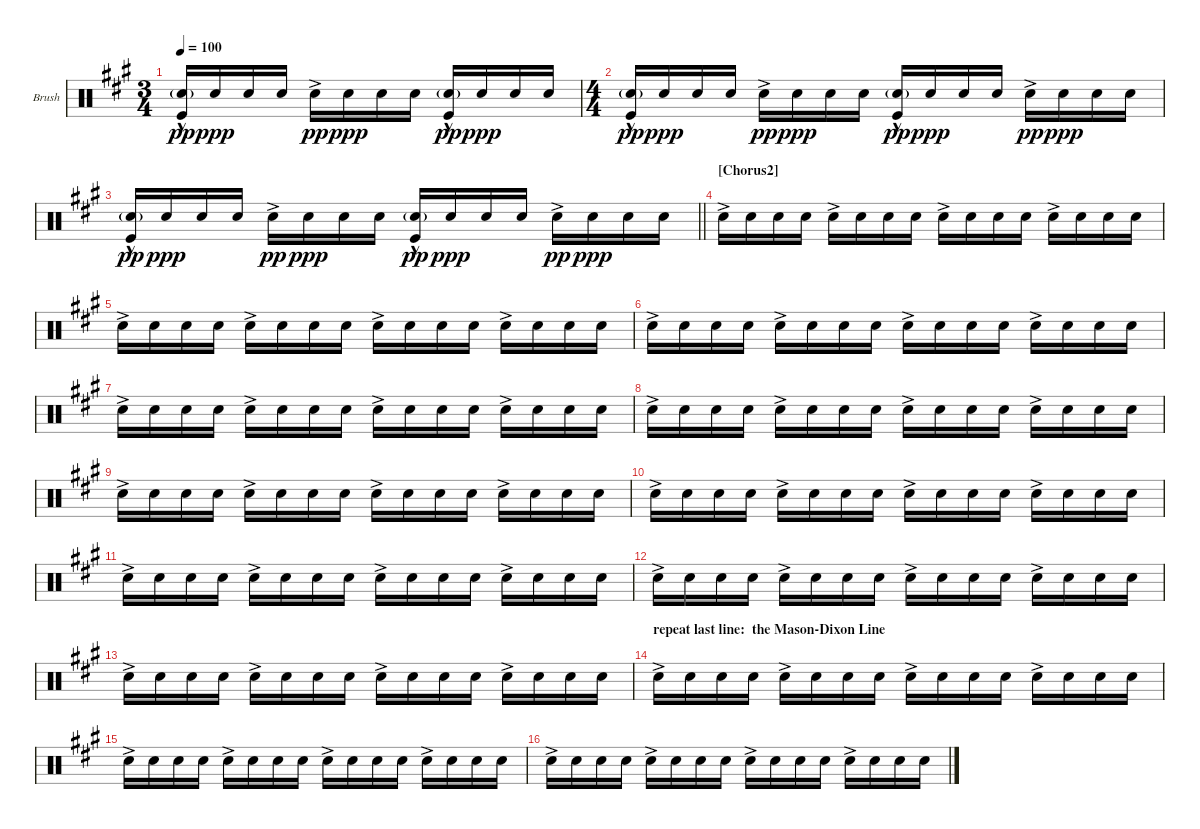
\bracketExtendMode groupsimilarinstruments
\firstSystemTrackNameOrientation horizontal
\otherSystemsTrackNameOrientation horizontal
\track ("Brush Snare" "Brush") {instrument percussion}
\staff {score}
\articulation defaults
\ts (3 4)
\tempo 100
\clef neutral
\ks f#minor
("Snare (hit) 2"{g} "Kick (hit)"{hac}).16{dy pp} "Snare (hit) 2".16{dy ppp} "Snare (hit) 2".16 "Snare (hit) 2".16 "Snare (hit) 2"{ac}.16{dy pp} "Snare (hit) 2".16{dy ppp} "Snare (hit) 2".16 "Snare (hit) 2".16 ("Snare (hit) 2"{g} "Kick (hit)"{hac}).16{dy pp} "Snare (hit) 2".16{dy ppp} "Snare (hit) 2".16 "Snare (hit) 2".16 |
\ts (4 4)
("Snare (hit) 2"{g} "Kick (hit)"{hac}).16{dy pp} "Snare (hit) 2".16{dy ppp} "Snare (hit) 2".16 "Snare (hit) 2".16 "Snare (hit) 2"{ac}.16{dy pp} "Snare (hit) 2".16{dy ppp} "Snare (hit) 2".16 "Snare (hit) 2".16 ("Snare (hit) 2"{g} "Kick (hit)"{hac}).16{dy pp} "Snare (hit) 2".16{dy ppp} "Snare (hit) 2".16 "Snare (hit) 2".16 "Snare (hit) 2"{ac}.16{dy pp} "Snare (hit) 2".16{dy ppp} "Snare (hit) 2".16 "Snare (hit) 2".16 |
\barLineRight lightlight
("Snare (hit) 2"{g} "Kick (hit)"{hac}).16{dy pp} "Snare (hit) 2".16{dy ppp} "Snare (hit) 2".16 "Snare (hit) 2".16 "Snare (hit) 2"{ac}.16{dy pp} "Snare (hit) 2".16{dy ppp} "Snare (hit) 2".16 "Snare (hit) 2".16 ("Snare (hit) 2"{g} "Kick (hit)"{hac}).16{dy pp} "Snare (hit) 2".16{dy ppp} "Snare (hit) 2".16 "Snare (hit) 2".16 "Snare (hit) 2"{ac}.16{dy pp} "Snare (hit) 2".16{dy ppp} "Snare (hit) 2".16 "Snare (hit) 2".16 |
\section ("" "[Chorus2]")
"Snare (hit) 2"{ac}.16 "Snare (hit) 2".16 "Snare (hit) 2".16 "Snare (hit) 2".16 "Snare (hit) 2"{ac}.16 "Snare (hit) 2".16 "Snare (hit) 2".16 "Snare (hit) 2".16 "Snare (hit) 2"{ac}.16 "Snare (hit) 2".16 "Snare (hit) 2".16 "Snare (hit) 2".16 "Snare (hit) 2"{ac}.16 "Snare (hit) 2".16 "Snare (hit) 2".16 "Snare (hit) 2".16 |
"Snare (hit) 2"{ac}.16 "Snare (hit) 2".16 "Snare (hit) 2".16 "Snare (hit) 2".16 "Snare (hit) 2"{ac}.16 "Snare (hit) 2".16 "Snare (hit) 2".16 "Snare (hit) 2".16 "Snare (hit) 2"{ac}.16 "Snare (hit) 2".16 "Snare (hit) 2".16 "Snare (hit) 2".16 "Snare (hit) 2"{ac}.16 "Snare (hit) 2".16 "Snare (hit) 2".16 "Snare (hit) 2".16 |
"Snare (hit) 2"{ac}.16 "Snare (hit) 2".16 "Snare (hit) 2".16 "Snare (hit) 2".16 "Snare (hit) 2"{ac}.16 "Snare (hit) 2".16 "Snare (hit) 2".16 "Snare (hit) 2".16 "Snare (hit) 2"{ac}.16 "Snare (hit) 2".16 "Snare (hit) 2".16 "Snare (hit) 2".16 "Snare (hit) 2"{ac}.16 "Snare (hit) 2".16 "Snare (hit) 2".16 "Snare (hit) 2".16 |
"Snare (hit) 2"{ac}.16 "Snare (hit) 2".16 "Snare (hit) 2".16 "Snare (hit) 2".16 "Snare (hit) 2"{ac}.16 "Snare (hit) 2".16 "Snare (hit) 2".16 "Snare (hit) 2".16 "Snare (hit) 2"{ac}.16 "Snare (hit) 2".16 "Snare (hit) 2".16 "Snare (hit) 2".16 "Snare (hit) 2"{ac}.16 "Snare (hit) 2".16 "Snare (hit) 2".16 "Snare (hit) 2".16 |
"Snare (hit) 2"{ac}.16 "Snare (hit) 2".16 "Snare (hit) 2".16 "Snare (hit) 2".16 "Snare (hit) 2"{ac}.16 "Snare (hit) 2".16 "Snare (hit) 2".16 "Snare (hit) 2".16 "Snare (hit) 2"{ac}.16 "Snare (hit) 2".16 "Snare (hit) 2".16 "Snare (hit) 2".16 "Snare (hit) 2"{ac}.16 "Snare (hit) 2".16 "Snare (hit) 2".16 "Snare (hit) 2".16 |
"Snare (hit) 2"{ac}.16 "Snare (hit) 2".16 "Snare (hit) 2".16 "Snare (hit) 2".16 "Snare (hit) 2"{ac}.16 "Snare (hit) 2".16 "Snare (hit) 2".16 "Snare (hit) 2".16 "Snare (hit) 2"{ac}.16 "Snare (hit) 2".16 "Snare (hit) 2".16 "Snare (hit) 2".16 "Snare (hit) 2"{ac}.16 "Snare (hit) 2".16 "Snare (hit) 2".16 "Snare (hit) 2".16 |
"Snare (hit) 2"{ac}.16 "Snare (hit) 2".16 "Snare (hit) 2".16 "Snare (hit) 2".16 "Snare (hit) 2"{ac}.16 "Snare (hit) 2".16 "Snare (hit) 2".16 "Snare (hit) 2".16 "Snare (hit) 2"{ac}.16 "Snare (hit) 2".16 "Snare (hit) 2".16 "Snare (hit) 2".16 "Snare (hit) 2"{ac}.16 "Snare (hit) 2".16 "Snare (hit) 2".16 "Snare (hit) 2".16 |
"Snare (hit) 2"{ac}.16 "Snare (hit) 2".16 "Snare (hit) 2".16 "Snare (hit) 2".16 "Snare (hit) 2"{ac}.16 "Snare (hit) 2".16 "Snare (hit) 2".16 "Snare (hit) 2".16 "Snare (hit) 2"{ac}.16 "Snare (hit) 2".16 "Snare (hit) 2".16 "Snare (hit) 2".16 "Snare (hit) 2"{ac}.16 "Snare (hit) 2".16 "Snare (hit) 2".16 "Snare (hit) 2".16 |
"Snare (hit) 2"{ac}.16 "Snare (hit) 2".16 "Snare (hit) 2".16 "Snare (hit) 2".16 "Snare (hit) 2"{ac}.16 "Snare (hit) 2".16 "Snare (hit) 2".16 "Snare (hit) 2".16 "Snare (hit) 2"{ac}.16 "Snare (hit) 2".16 "Snare (hit) 2".16 "Snare (hit) 2".16 "Snare (hit) 2"{ac}.16 "Snare (hit) 2".16 "Snare (hit) 2".16 "Snare (hit) 2".16 |
"Snare (hit) 2"{ac}.16 "Snare (hit) 2".16 "Snare (hit) 2".16 "Snare (hit) 2".16 "Snare (hit) 2"{ac}.16 "Snare (hit) 2".16 "Snare (hit) 2".16 "Snare (hit) 2".16 "Snare (hit) 2"{ac}.16 "Snare (hit) 2".16 "Snare (hit) 2".16 "Snare (hit) 2".16 "Snare (hit) 2"{ac}.16 "Snare (hit) 2".16 "Snare (hit) 2".16 "Snare (hit) 2".16 |
\section ("" "repeat last line:  the Mason-Dixon Line")
"Snare (hit) 2"{ac}.16 "Snare (hit) 2".16 "Snare (hit) 2".16 "Snare (hit) 2".16 "Snare (hit) 2"{ac}.16 "Snare (hit) 2".16 "Snare (hit) 2".16 "Snare (hit) 2".16 "Snare (hit) 2"{ac}.16 "Snare (hit) 2".16 "Snare (hit) 2".16 "Snare (hit) 2".16 "Snare (hit) 2"{ac}.16 "Snare (hit) 2".16 "Snare (hit) 2".16 "Snare (hit) 2".16 |
"Snare (hit) 2"{ac}.16 "Snare (hit) 2".16 "Snare (hit) 2".16 "Snare (hit) 2".16 "Snare (hit) 2"{ac}.16 "Snare (hit) 2".16 "Snare (hit) 2".16 "Snare (hit) 2".16 "Snare (hit) 2"{ac}.16 "Snare (hit) 2".16 "Snare (hit) 2".16 "Snare (hit) 2".16 "Snare (hit) 2"{ac}.16 "Snare (hit) 2".16 "Snare (hit) 2".16 "Snare (hit) 2".16 |
"Snare (hit) 2"{ac}.16 "Snare (hit) 2".16 "Snare (hit) 2".16 "Snare (hit) 2".16 "Snare (hit) 2"{ac}.16 "Snare (hit) 2".16 "Snare (hit) 2".16 "Snare (hit) 2".16 "Snare (hit) 2"{ac}.16 "Snare (hit) 2".16 "Snare (hit) 2".16 "Snare (hit) 2".16 "Snare (hit) 2"{ac}.16 "Snare (hit) 2".16 "Snare (hit) 2".16 "Snare (hit) 2".16
